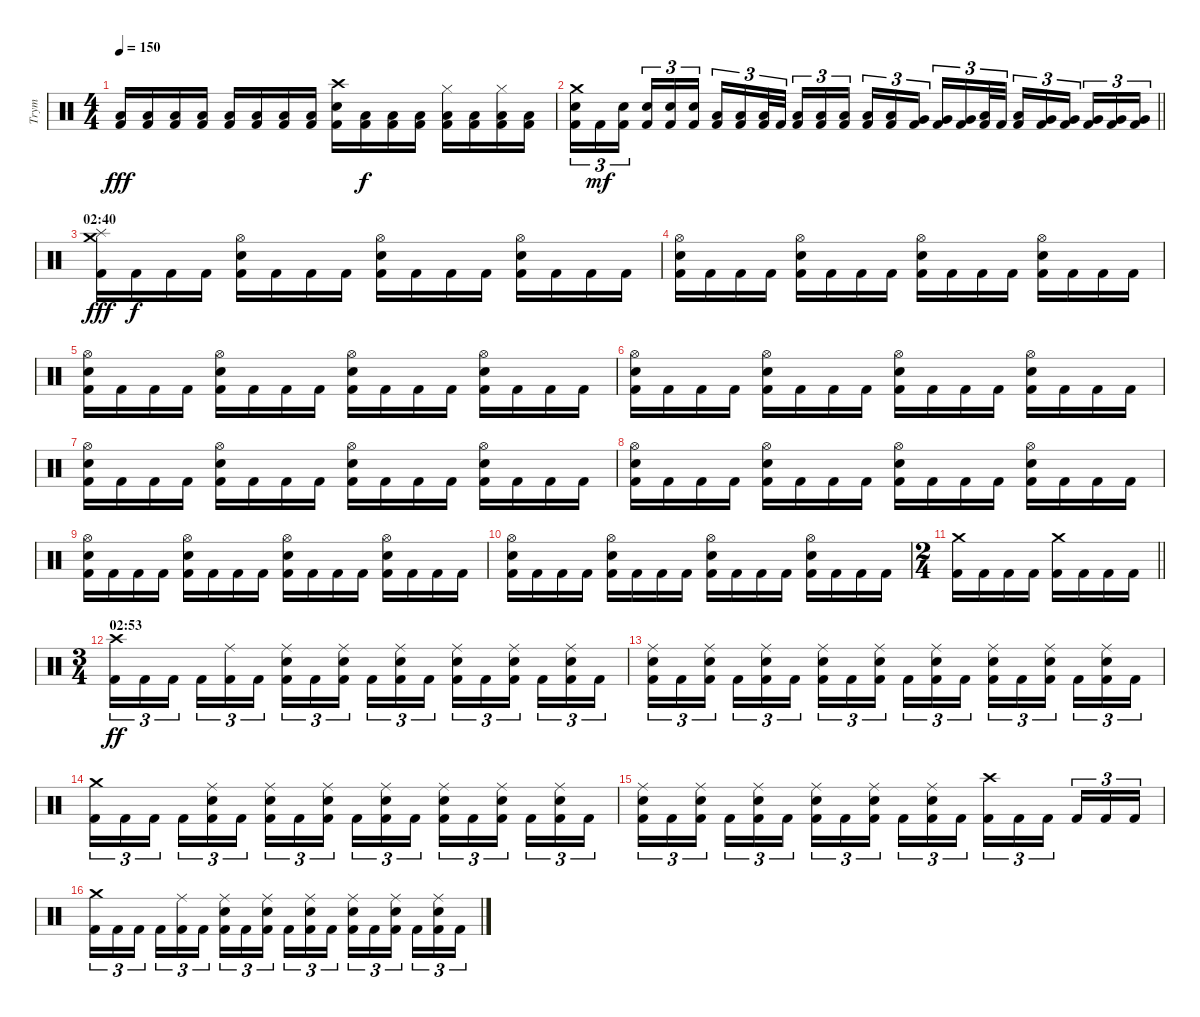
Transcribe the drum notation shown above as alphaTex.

\track ("Trym" "Trym") {instrument percussion}
\staff {score}
\articulation defaults
\ts (4 4)
\tempo 150
\clef neutral
\ks c
("Low Floor Tom (hit)" "Kick (hit) 2").16{dy fff} ("Low Floor Tom (hit)" "Kick (hit) 2").16 ("Low Floor Tom (hit)" "Kick (hit) 2").16 ("Low Floor Tom (hit)" "Kick (hit) 2").16 ("Low Floor Tom (hit)" "Kick (hit) 2").16 ("Low Floor Tom (hit)" "Kick (hit) 2").16 ("Low Floor Tom (hit)" "Kick (hit) 2").16 ("Low Floor Tom (hit)" "Kick (hit) 2").16 ("Snare (hit) 2" "Crash high (hit)" "Kick (hit) 2").16 ("Low Floor Tom (hit)" "Kick (hit) 2").16{dy f} ("Low Floor Tom (hit)" "Kick (hit) 2").16 ("Low Floor Tom (hit)" "Kick (hit) 2").16 ("Hi-Hat (closed)" "Low Floor Tom (hit)" "Kick (hit) 2").16 ("Low Floor Tom (hit)" "Kick (hit) 2").16 ("Hi-Hat (closed)" "Low Floor Tom (hit)" "Kick (hit) 2").16 ("Low Floor Tom (hit)" "Kick (hit) 2").16 |
\barLineRight lightlight
("Snare (hit) 2" "Crash medium (hit)" "Kick (hit) 2").16{tu (3 2)} "Kick (hit) 2".16{tu (3 2) dy mf} ("Snare (hit) 2" "Kick (hit) 2").16{tu (3 2) beam splitsecondary} ("Snare (hit) 2" "Kick (hit) 2").16{tu (3 2)} ("Snare (hit) 2" "Kick (hit) 2").16{tu (3 2)} ("Snare (hit) 2" "Kick (hit) 2").16{tu (3 2)} ("Low Tom (hit)" "Kick (hit) 2").16{tu (3 2)} ("Low Tom (hit)" "Kick (hit) 2").16{tu (3 2)} ("Low Tom (hit)" "Kick (hit) 2").32{tu (3 2)} "Kick (hit) 2".32{tu (3 2) beam splitsecondary} ("Low Floor Tom (hit)" "Kick (hit) 2").16{tu (3 2)} ("Low Tom (hit)" "Kick (hit) 2").16{tu (3 2)} ("Low Tom (hit)" "Kick (hit) 2").16{tu (3 2)} ("Low Tom (hit)" "Kick (hit) 2").16{tu (3 2)} ("Low Tom (hit)" "Kick (hit) 2").16{tu (3 2)} ("Very Low Tom (hit)" "Kick (hit) 2").16{tu (3 2) beam splitsecondary} ("Very Low Tom (hit)" "Kick (hit) 2").16{tu (3 2)} ("Very Low Tom (hit)" "Kick (hit) 2").16{tu (3 2)} ("Low Tom (hit)" "Kick (hit) 2").32{tu (3 2)} "Kick (hit) 2".32{tu (3 2)} ("Low Floor Tom (hit)" "Kick (hit) 2").16{tu (3 2)} ("Very Low Tom (hit)" "Kick (hit) 2").16{tu (3 2)} ("Very Low Tom (hit)" "Kick (hit) 2").16{tu (3 2) beam splitsecondary} ("Very Low Tom (hit)" "Kick (hit) 2").16{tu (3 2)} ("Very Low Tom (hit)" "Kick (hit) 2").16{tu (3 2)} ("Very Low Tom (hit)" "Kick (hit) 2").16{tu (3 2)} |
\section ("" "02:40")
("Crash medium (hit)" "Splash (hit)" "Kick (hit) 2").16{dy fff} "Kick (hit) 2".16{dy f} "Kick (hit) 2".16 "Kick (hit) 2".16 ("Snare (hit) 2" "Hi-Hat (open)" "Kick (hit) 2").16 "Kick (hit) 2".16 "Kick (hit) 2".16 "Kick (hit) 2".16 ("Snare (hit) 2" "Hi-Hat (open)" "Kick (hit) 2").16 "Kick (hit) 2".16 "Kick (hit) 2".16 "Kick (hit) 2".16 ("Snare (hit) 2" "Hi-Hat (open)" "Kick (hit) 2").16 "Kick (hit) 2".16 "Kick (hit) 2".16 "Kick (hit) 2".16 |
("Snare (hit) 2" "Hi-Hat (open)" "Kick (hit) 2").16 "Kick (hit) 2".16 "Kick (hit) 2".16 "Kick (hit) 2".16 ("Snare (hit) 2" "Hi-Hat (open)" "Kick (hit) 2").16 "Kick (hit) 2".16 "Kick (hit) 2".16 "Kick (hit) 2".16 ("Snare (hit) 2" "Hi-Hat (open)" "Kick (hit) 2").16 "Kick (hit) 2".16 "Kick (hit) 2".16 "Kick (hit) 2".16 ("Snare (hit) 2" "Hi-Hat (open)" "Kick (hit) 2").16 "Kick (hit) 2".16 "Kick (hit) 2".16 "Kick (hit) 2".16 |
("Snare (hit) 2" "Hi-Hat (open)" "Kick (hit) 2").16 "Kick (hit) 2".16 "Kick (hit) 2".16 "Kick (hit) 2".16 ("Snare (hit) 2" "Hi-Hat (open)" "Kick (hit) 2").16 "Kick (hit) 2".16 "Kick (hit) 2".16 "Kick (hit) 2".16 ("Snare (hit) 2" "Hi-Hat (open)" "Kick (hit) 2").16 "Kick (hit) 2".16 "Kick (hit) 2".16 "Kick (hit) 2".16 ("Snare (hit) 2" "Hi-Hat (open)" "Kick (hit) 2").16 "Kick (hit) 2".16 "Kick (hit) 2".16 "Kick (hit) 2".16 |
("Snare (hit) 2" "Hi-Hat (open)" "Kick (hit) 2").16 "Kick (hit) 2".16 "Kick (hit) 2".16 "Kick (hit) 2".16 ("Snare (hit) 2" "Hi-Hat (open)" "Kick (hit) 2").16 "Kick (hit) 2".16 "Kick (hit) 2".16 "Kick (hit) 2".16 ("Snare (hit) 2" "Hi-Hat (open)" "Kick (hit) 2").16 "Kick (hit) 2".16 "Kick (hit) 2".16 "Kick (hit) 2".16 ("Snare (hit) 2" "Hi-Hat (open)" "Kick (hit) 2").16 "Kick (hit) 2".16 "Kick (hit) 2".16 "Kick (hit) 2".16 |
("Snare (hit) 2" "Hi-Hat (open)" "Kick (hit) 2").16 "Kick (hit) 2".16 "Kick (hit) 2".16 "Kick (hit) 2".16 ("Snare (hit) 2" "Hi-Hat (open)" "Kick (hit) 2").16 "Kick (hit) 2".16 "Kick (hit) 2".16 "Kick (hit) 2".16 ("Snare (hit) 2" "Hi-Hat (open)" "Kick (hit) 2").16 "Kick (hit) 2".16 "Kick (hit) 2".16 "Kick (hit) 2".16 ("Snare (hit) 2" "Hi-Hat (open)" "Kick (hit) 2").16 "Kick (hit) 2".16 "Kick (hit) 2".16 "Kick (hit) 2".16 |
("Snare (hit) 2" "Hi-Hat (open)" "Kick (hit) 2").16 "Kick (hit) 2".16 "Kick (hit) 2".16 "Kick (hit) 2".16 ("Snare (hit) 2" "Hi-Hat (open)" "Kick (hit) 2").16 "Kick (hit) 2".16 "Kick (hit) 2".16 "Kick (hit) 2".16 ("Snare (hit) 2" "Hi-Hat (open)" "Kick (hit) 2").16 "Kick (hit) 2".16 "Kick (hit) 2".16 "Kick (hit) 2".16 ("Snare (hit) 2" "Hi-Hat (open)" "Kick (hit) 2").16 "Kick (hit) 2".16 "Kick (hit) 2".16 "Kick (hit) 2".16 |
("Snare (hit) 2" "Hi-Hat (open)" "Kick (hit) 2").16 "Kick (hit) 2".16 "Kick (hit) 2".16 "Kick (hit) 2".16 ("Snare (hit) 2" "Hi-Hat (open)" "Kick (hit) 2").16 "Kick (hit) 2".16 "Kick (hit) 2".16 "Kick (hit) 2".16 ("Snare (hit) 2" "Hi-Hat (open)" "Kick (hit) 2").16 "Kick (hit) 2".16 "Kick (hit) 2".16 "Kick (hit) 2".16 ("Snare (hit) 2" "Hi-Hat (open)" "Kick (hit) 2").16 "Kick (hit) 2".16 "Kick (hit) 2".16 "Kick (hit) 2".16 |
("Snare (hit) 2" "Hi-Hat (open)" "Kick (hit) 2").16 "Kick (hit) 2".16 "Kick (hit) 2".16 "Kick (hit) 2".16 ("Snare (hit) 2" "Hi-Hat (open)" "Kick (hit) 2").16 "Kick (hit) 2".16 "Kick (hit) 2".16 "Kick (hit) 2".16 ("Snare (hit) 2" "Hi-Hat (open)" "Kick (hit) 2").16 "Kick (hit) 2".16 "Kick (hit) 2".16 "Kick (hit) 2".16 ("Snare (hit) 2" "Hi-Hat (open)" "Kick (hit) 2").16 "Kick (hit) 2".16 "Kick (hit) 2".16 "Kick (hit) 2".16 |
\ts (2 4)
\barLineRight lightlight
("Crash medium (hit)" "Kick (hit) 2").16 "Kick (hit) 2".16 "Kick (hit) 2".16 "Kick (hit) 2".16 ("Crash medium (hit)" "Kick (hit) 2").16 "Kick (hit) 2".16 "Kick (hit) 2".16 "Kick (hit) 2".16 |
\ts (3 4)
\section ("" "02:53")
("Crash high (hit)" "Kick (hit) 2").16{tu (3 2) dy ff} "Kick (hit) 2".16{tu (3 2)} "Kick (hit) 2".16{tu (3 2) beam splitsecondary} "Kick (hit) 2".16{tu (3 2)} ("Ride (middle)" "Kick (hit) 2").16{tu (3 2)} "Kick (hit) 2".16{tu (3 2)} ("Snare (hit) 2" "Ride (middle)" "Kick (hit) 2").16{tu (3 2)} "Kick (hit) 2".16{tu (3 2)} ("Snare (hit) 2" "Ride (middle)" "Kick (hit) 2").16{tu (3 2) beam splitsecondary} "Kick (hit) 2".16{tu (3 2)} ("Snare (hit) 2" "Ride (middle)" "Kick (hit) 2").16{tu (3 2)} "Kick (hit) 2".16{tu (3 2)} ("Snare (hit) 2" "Ride (middle)" "Kick (hit) 2").16{tu (3 2)} "Kick (hit) 2".16{tu (3 2)} ("Snare (hit) 2" "Ride (middle)" "Kick (hit) 2").16{tu (3 2) beam splitsecondary} "Kick (hit) 2".16{tu (3 2)} ("Snare (hit) 2" "Ride (middle)" "Kick (hit) 2").16{tu (3 2)} "Kick (hit) 2".16{tu (3 2)} |
("Snare (hit) 2" "Ride (middle)" "Kick (hit) 2").16{tu (3 2)} "Kick (hit) 2".16{tu (3 2)} ("Snare (hit) 2" "Ride (middle)" "Kick (hit) 2").16{tu (3 2) beam splitsecondary} "Kick (hit) 2".16{tu (3 2)} ("Snare (hit) 2" "Ride (middle)" "Kick (hit) 2").16{tu (3 2)} "Kick (hit) 2".16{tu (3 2)} ("Snare (hit) 2" "Ride (middle)" "Kick (hit) 2").16{tu (3 2)} "Kick (hit) 2".16{tu (3 2)} ("Snare (hit) 2" "Ride (middle)" "Kick (hit) 2").16{tu (3 2) beam splitsecondary} "Kick (hit) 2".16{tu (3 2)} ("Snare (hit) 2" "Ride (middle)" "Kick (hit) 2").16{tu (3 2)} "Kick (hit) 2".16{tu (3 2)} ("Snare (hit) 2" "Ride (middle)" "Kick (hit) 2").16{tu (3 2)} "Kick (hit) 2".16{tu (3 2)} ("Snare (hit) 2" "Ride (middle)" "Kick (hit) 2").16{tu (3 2) beam splitsecondary} "Kick (hit) 2".16{tu (3 2)} ("Snare (hit) 2" "Ride (middle)" "Kick (hit) 2").16{tu (3 2)} "Kick (hit) 2".16{tu (3 2)} |
("Crash medium (hit)" "Kick (hit) 2").16{tu (3 2)} "Kick (hit) 2".16{tu (3 2)} "Kick (hit) 2".16{tu (3 2) beam splitsecondary} "Kick (hit) 2".16{tu (3 2)} ("Snare (hit) 2" "Ride (middle)" "Kick (hit) 2").16{tu (3 2)} "Kick (hit) 2".16{tu (3 2)} ("Snare (hit) 2" "Ride (middle)" "Kick (hit) 2").16{tu (3 2)} "Kick (hit) 2".16{tu (3 2)} ("Snare (hit) 2" "Ride (middle)" "Kick (hit) 2").16{tu (3 2) beam splitsecondary} "Kick (hit) 2".16{tu (3 2)} ("Snare (hit) 2" "Ride (middle)" "Kick (hit) 2").16{tu (3 2)} "Kick (hit) 2".16{tu (3 2)} ("Snare (hit) 2" "Ride (middle)" "Kick (hit) 2").16{tu (3 2)} "Kick (hit) 2".16{tu (3 2)} ("Snare (hit) 2" "Ride (middle)" "Kick (hit) 2").16{tu (3 2) beam splitsecondary} "Kick (hit) 2".16{tu (3 2)} ("Snare (hit) 2" "Ride (middle)" "Kick (hit) 2").16{tu (3 2)} "Kick (hit) 2".16{tu (3 2)} |
("Snare (hit) 2" "Ride (middle)" "Kick (hit) 2").16{tu (3 2)} "Kick (hit) 2".16{tu (3 2)} ("Snare (hit) 2" "Ride (middle)" "Kick (hit) 2").16{tu (3 2) beam splitsecondary} "Kick (hit) 2".16{tu (3 2)} ("Snare (hit) 2" "Ride (middle)" "Kick (hit) 2").16{tu (3 2)} "Kick (hit) 2".16{tu (3 2)} ("Snare (hit) 2" "Ride (middle)" "Kick (hit) 2").16{tu (3 2)} "Kick (hit) 2".16{tu (3 2)} ("Snare (hit) 2" "Ride (middle)" "Kick (hit) 2").16{tu (3 2) beam splitsecondary} "Kick (hit) 2".16{tu (3 2)} ("Snare (hit) 2" "Ride (middle)" "Kick (hit) 2").16{tu (3 2)} "Kick (hit) 2".16{tu (3 2)} ("Crash high (hit)" "Kick (hit) 2").16{tu (3 2)} "Kick (hit) 2".16{tu (3 2)} "Kick (hit) 2".16{tu (3 2) beam splitsecondary} "Kick (hit) 2".16{tu (3 2)} "Kick (hit) 2".16{tu (3 2)} "Kick (hit) 2".16{tu (3 2)} |
("Crash medium (hit)" "Kick (hit) 2").16{tu (3 2)} "Kick (hit) 2".16{tu (3 2)} "Kick (hit) 2".16{tu (3 2) beam splitsecondary} "Kick (hit) 2".16{tu (3 2)} ("Ride (middle)" "Kick (hit) 2").16{tu (3 2)} "Kick (hit) 2".16{tu (3 2)} ("Snare (hit) 2" "Ride (middle)" "Kick (hit) 2").16{tu (3 2)} "Kick (hit) 2".16{tu (3 2)} ("Snare (hit) 2" "Ride (middle)" "Kick (hit) 2").16{tu (3 2) beam splitsecondary} "Kick (hit) 2".16{tu (3 2)} ("Snare (hit) 2" "Ride (middle)" "Kick (hit) 2").16{tu (3 2)} "Kick (hit) 2".16{tu (3 2)} ("Snare (hit) 2" "Ride (middle)" "Kick (hit) 2").16{tu (3 2)} "Kick (hit) 2".16{tu (3 2)} ("Snare (hit) 2" "Ride (middle)" "Kick (hit) 2").16{tu (3 2) beam splitsecondary} "Kick (hit) 2".16{tu (3 2)} ("Snare (hit) 2" "Ride (middle)" "Kick (hit) 2").16{tu (3 2)} "Kick (hit) 2".16{tu (3 2)}
